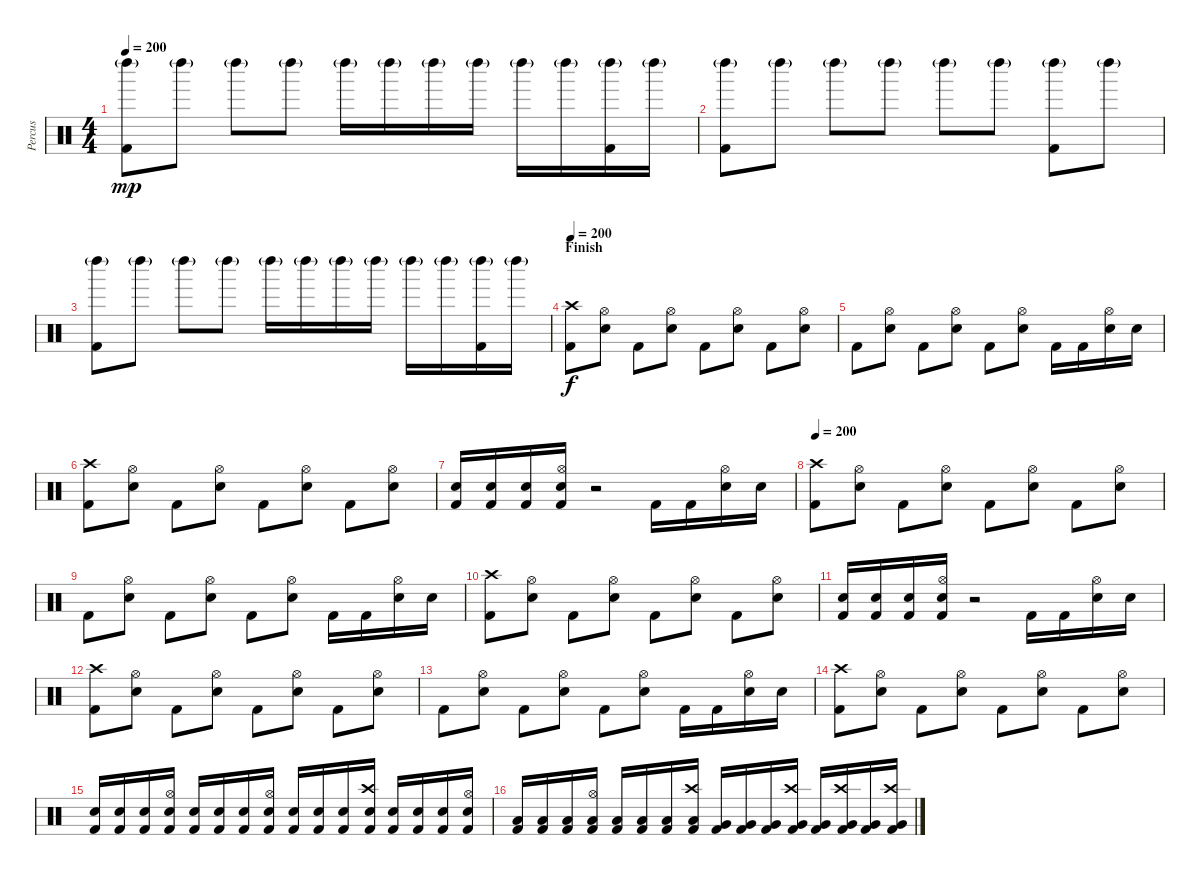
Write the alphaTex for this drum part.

\track ("Percus" "Percus") {instrument percussion}
\staff {score}
\articulation defaults
\ts (4 4)
\tempo 200
\clef neutral
\ks c
("Left Maraca (hit)"{g} "Kick (hit) 2").8{dy mp} "Left Maraca (hit)"{g}.8 "Left Maraca (hit)"{g}.8 "Left Maraca (hit)"{g}.8 "Left Maraca (hit)"{g}.16 "Left Maraca (hit)"{g}.16 "Left Maraca (hit)"{g}.16 "Left Maraca (hit)"{g}.16 "Left Maraca (hit)"{g}.16 "Left Maraca (hit)"{g}.16 ("Left Maraca (hit)"{g} "Kick (hit) 2").16 "Left Maraca (hit)"{g}.16 |
("Left Maraca (hit)"{g} "Kick (hit) 2").8 "Left Maraca (hit)"{g}.8 "Left Maraca (hit)"{g}.8 "Left Maraca (hit)"{g}.8 "Left Maraca (hit)"{g}.8 "Left Maraca (hit)"{g}.8 ("Left Maraca (hit)"{g} "Kick (hit) 2").8 "Left Maraca (hit)"{g}.8 |
("Left Maraca (hit)"{g} "Kick (hit) 2").8 "Left Maraca (hit)"{g}.8 "Left Maraca (hit)"{g}.8 "Left Maraca (hit)"{g}.8 "Left Maraca (hit)"{g}.16 "Left Maraca (hit)"{g}.16 "Left Maraca (hit)"{g}.16 "Left Maraca (hit)"{g}.16 "Left Maraca (hit)"{g}.16 "Left Maraca (hit)"{g}.16 ("Left Maraca (hit)"{g} "Kick (hit) 2").16 "Left Maraca (hit)"{g}.16 |
\section ("" "Finish")
\tempo 200
("Crash high (hit)" "Kick (hit) 2").8{dy f} ("Hi-Hat (open)" "Snare (hit) 2").8 "Kick (hit) 2".8 ("Hi-Hat (open)" "Snare (hit) 2").8 "Kick (hit) 2".8 ("Hi-Hat (open)" "Snare (hit) 2").8 "Kick (hit) 2".8 ("Hi-Hat (open)" "Snare (hit) 2").8 |
"Kick (hit) 2".8 ("Hi-Hat (open)" "Snare (hit) 2").8 "Kick (hit) 2".8 ("Hi-Hat (open)" "Snare (hit) 2").8 "Kick (hit) 2".8 ("Hi-Hat (open)" "Snare (hit) 2").8 "Kick (hit) 2".16 "Kick (hit) 2".16 ("Hi-Hat (open)" "Snare (hit) 2").16 "Snare (hit) 2".16 |
("Crash high (hit)" "Kick (hit) 2").8 ("Hi-Hat (open)" "Snare (hit) 2").8 "Kick (hit) 2".8 ("Hi-Hat (open)" "Snare (hit) 2").8 "Kick (hit) 2".8 ("Hi-Hat (open)" "Snare (hit) 2").8 "Kick (hit) 2".8 ("Hi-Hat (open)" "Snare (hit) 2").8 |
("Snare (hit) 2" "Kick (hit) 2").16 ("Snare (hit) 2" "Kick (hit) 2").16 ("Snare (hit) 2" "Kick (hit) 2").16 ("Hi-Hat (open)" "Snare (hit) 2" "Kick (hit) 2").16 r.2 "Kick (hit) 2".16 "Kick (hit) 2".16 ("Hi-Hat (open)" "Snare (hit) 2").16 "Snare (hit) 2".16 |
\tempo 200
("Crash high (hit)" "Kick (hit) 2").8 ("Hi-Hat (open)" "Snare (hit) 2").8 "Kick (hit) 2".8 ("Hi-Hat (open)" "Snare (hit) 2").8 "Kick (hit) 2".8 ("Hi-Hat (open)" "Snare (hit) 2").8 "Kick (hit) 2".8 ("Hi-Hat (open)" "Snare (hit) 2").8 |
"Kick (hit) 2".8 ("Hi-Hat (open)" "Snare (hit) 2").8 "Kick (hit) 2".8 ("Hi-Hat (open)" "Snare (hit) 2").8 "Kick (hit) 2".8 ("Hi-Hat (open)" "Snare (hit) 2").8 "Kick (hit) 2".16 "Kick (hit) 2".16 ("Hi-Hat (open)" "Snare (hit) 2").16 "Snare (hit) 2".16 |
("Crash high (hit)" "Kick (hit) 2").8 ("Hi-Hat (open)" "Snare (hit) 2").8 "Kick (hit) 2".8 ("Hi-Hat (open)" "Snare (hit) 2").8 "Kick (hit) 2".8 ("Hi-Hat (open)" "Snare (hit) 2").8 "Kick (hit) 2".8 ("Hi-Hat (open)" "Snare (hit) 2").8 |
("Snare (hit) 2" "Kick (hit) 2").16 ("Snare (hit) 2" "Kick (hit) 2").16 ("Snare (hit) 2" "Kick (hit) 2").16 ("Hi-Hat (open)" "Snare (hit) 2" "Kick (hit) 2").16 r.2 "Kick (hit) 2".16 "Kick (hit) 2".16 ("Hi-Hat (open)" "Snare (hit) 2").16 "Snare (hit) 2".16 |
("Crash high (hit)" "Kick (hit) 2").8 ("Hi-Hat (open)" "Snare (hit) 2").8 "Kick (hit) 2".8 ("Hi-Hat (open)" "Snare (hit) 2").8 "Kick (hit) 2".8 ("Hi-Hat (open)" "Snare (hit) 2").8 "Kick (hit) 2".8 ("Hi-Hat (open)" "Snare (hit) 2").8 |
"Kick (hit) 2".8 ("Hi-Hat (open)" "Snare (hit) 2").8 "Kick (hit) 2".8 ("Hi-Hat (open)" "Snare (hit) 2").8 "Kick (hit) 2".8 ("Hi-Hat (open)" "Snare (hit) 2").8 "Kick (hit) 2".16 "Kick (hit) 2".16 ("Hi-Hat (open)" "Snare (hit) 2").16 "Snare (hit) 2".16 |
("Crash high (hit)" "Kick (hit) 2").8 ("Hi-Hat (open)" "Snare (hit) 2").8 "Kick (hit) 2".8 ("Hi-Hat (open)" "Snare (hit) 2").8 "Kick (hit) 2".8 ("Hi-Hat (open)" "Snare (hit) 2").8 "Kick (hit) 2".8 ("Hi-Hat (open)" "Snare (hit) 2").8 |
("Snare (hit) 2" "Kick (hit) 2").16 ("Snare (hit) 2" "Kick (hit) 2").16 ("Snare (hit) 2" "Kick (hit) 2").16 ("Hi-Hat (open)" "Snare (hit) 2" "Kick (hit) 2").16 ("Snare (hit) 2" "Kick (hit) 2").16 ("Snare (hit) 2" "Kick (hit) 2").16 ("Snare (hit) 2" "Kick (hit) 2").16 ("Hi-Hat (open)" "Snare (hit) 2" "Kick (hit) 2").16 ("Electric Snare (hit)" "Kick (hit) 2").16 ("Electric Snare (hit)" "Kick (hit) 2").16 ("Electric Snare (hit)" "Kick (hit) 2").16 ("Crash high (hit)" "Electric Snare (hit)" "Kick (hit) 2").16 ("Electric Snare (hit)" "Kick (hit) 2").16 ("Electric Snare (hit)" "Kick (hit) 2").16 ("Electric Snare (hit)" "Kick (hit) 2").16 ("Hi-Hat (open)" "Electric Snare (hit)" "Kick (hit) 2").16 |
("Low Tom (hit)" "Kick (hit) 2").16 ("Low Tom (hit)" "Kick (hit) 2").16 ("Low Tom (hit)" "Kick (hit) 2").16 ("Hi-Hat (open)" "Low Tom (hit)" "Kick (hit) 2").16 ("Low Tom (hit)" "Kick (hit) 2").16 ("Low Tom (hit)" "Kick (hit) 2").16 ("Low Tom (hit)" "Kick (hit) 2").16 ("Crash high (hit)" "Low Tom (hit)" "Kick (hit) 2").16 ("Very Low Tom (hit)" "Kick (hit) 2").16 ("Very Low Tom (hit)" "Kick (hit) 2").16 ("Very Low Tom (hit)" "Kick (hit) 2").16 ("Crash high (hit)" "Very Low Tom (hit)" "Kick (hit) 2").16 ("Very Low Tom (hit)" "Kick (hit) 2").16 ("Crash high (hit)" "Very Low Tom (hit)" "Kick (hit) 2").16 ("Very Low Tom (hit)" "Kick (hit) 2").16 ("Crash high (hit)" "Very Low Tom (hit)" "Kick (hit) 2").16
